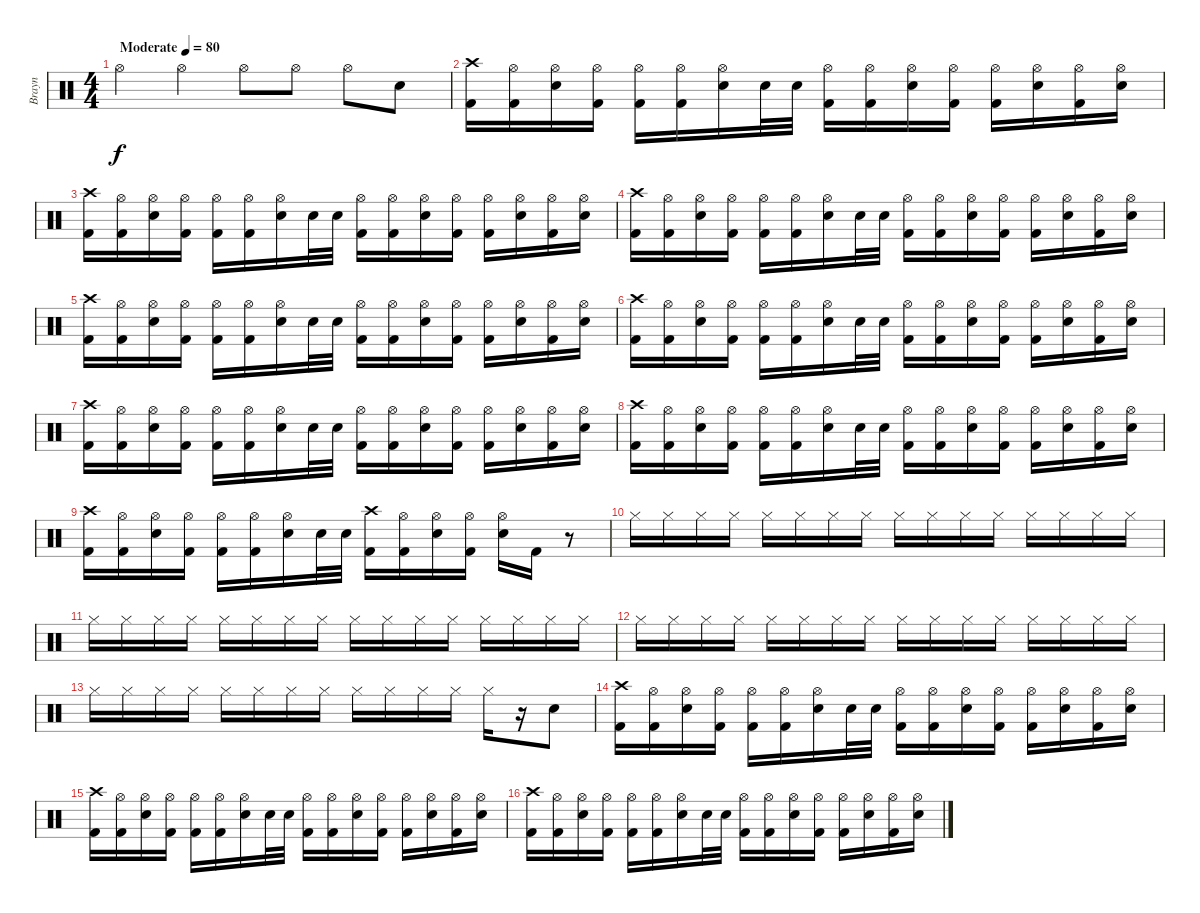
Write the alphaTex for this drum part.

\track ("Brayn" "Brayn") {instrument percussion}
\staff {score}
\articulation defaults
\ts (4 4)
\tempo (80 "Moderate")
\clef neutral
\ks c "Hi-Hat (open)".4{dy f} "Hi-Hat (open)".4 "Hi-Hat (open)".8 "Hi-Hat (open)".8 "Hi-Hat (open)".8 "Snare (hit) 2".8
|
("Crash high (hit)" "Kick (hit) 2").16 ("Hi-Hat (open)" "Kick (hit) 2").16 ("Hi-Hat (open)" "Snare (hit) 2").16 ("Hi-Hat (open)" "Kick (hit) 2").16 ("Hi-Hat (open)" "Kick (hit) 2").16 ("Hi-Hat (open)" "Kick (hit) 2").16 ("Hi-Hat (open)" "Snare (hit) 2").16 "Snare (hit) 2".32 "Snare (hit) 2".32 ("Hi-Hat (open)" "Kick (hit) 2").16 ("Hi-Hat (open)" "Kick (hit) 2").16 ("Hi-Hat (open)" "Snare (hit) 2").16 ("Hi-Hat (open)" "Kick (hit) 2").16 ("Hi-Hat (open)" "Kick (hit) 2").16 ("Hi-Hat (open)" "Snare (hit) 2").16 ("Hi-Hat (open)" "Kick (hit) 2").16 ("Hi-Hat (open)" "Snare (hit) 2").16 |
("Crash high (hit)" "Kick (hit) 2").16 ("Hi-Hat (open)" "Kick (hit) 2").16 ("Hi-Hat (open)" "Snare (hit) 2").16 ("Hi-Hat (open)" "Kick (hit) 2").16 ("Hi-Hat (open)" "Kick (hit) 2").16 ("Hi-Hat (open)" "Kick (hit) 2").16 ("Hi-Hat (open)" "Snare (hit) 2").16 "Snare (hit) 2".32 "Snare (hit) 2".32 ("Hi-Hat (open)" "Kick (hit) 2").16 ("Hi-Hat (open)" "Kick (hit) 2").16 ("Hi-Hat (open)" "Snare (hit) 2").16 ("Hi-Hat (open)" "Kick (hit) 2").16 ("Hi-Hat (open)" "Kick (hit) 2").16 ("Hi-Hat (open)" "Snare (hit) 2").16 ("Hi-Hat (open)" "Kick (hit) 2").16 ("Hi-Hat (open)" "Snare (hit) 2").16 |
("Crash high (hit)" "Kick (hit) 2").16 ("Hi-Hat (open)" "Kick (hit) 2").16 ("Hi-Hat (open)" "Snare (hit) 2").16 ("Hi-Hat (open)" "Kick (hit) 2").16 ("Hi-Hat (open)" "Kick (hit) 2").16 ("Hi-Hat (open)" "Kick (hit) 2").16 ("Hi-Hat (open)" "Snare (hit) 2").16 "Snare (hit) 2".32 "Snare (hit) 2".32 ("Hi-Hat (open)" "Kick (hit) 2").16 ("Hi-Hat (open)" "Kick (hit) 2").16 ("Hi-Hat (open)" "Snare (hit) 2").16 ("Hi-Hat (open)" "Kick (hit) 2").16 ("Hi-Hat (open)" "Kick (hit) 2").16 ("Hi-Hat (open)" "Snare (hit) 2").16 ("Hi-Hat (open)" "Kick (hit) 2").16 ("Hi-Hat (open)" "Snare (hit) 2").16 |
("Crash high (hit)" "Kick (hit) 2").16 ("Hi-Hat (open)" "Kick (hit) 2").16 ("Hi-Hat (open)" "Snare (hit) 2").16 ("Hi-Hat (open)" "Kick (hit) 2").16 ("Hi-Hat (open)" "Kick (hit) 2").16 ("Hi-Hat (open)" "Kick (hit) 2").16 ("Hi-Hat (open)" "Snare (hit) 2").16 "Snare (hit) 2".32 "Snare (hit) 2".32 ("Hi-Hat (open)" "Kick (hit) 2").16 ("Hi-Hat (open)" "Kick (hit) 2").16 ("Hi-Hat (open)" "Snare (hit) 2").16 ("Hi-Hat (open)" "Kick (hit) 2").16 ("Hi-Hat (open)" "Kick (hit) 2").16 ("Hi-Hat (open)" "Snare (hit) 2").16 ("Hi-Hat (open)" "Kick (hit) 2").16 ("Hi-Hat (open)" "Snare (hit) 2").16 |
("Crash high (hit)" "Kick (hit) 2").16 ("Hi-Hat (open)" "Kick (hit) 2").16 ("Hi-Hat (open)" "Snare (hit) 2").16 ("Hi-Hat (open)" "Kick (hit) 2").16 ("Hi-Hat (open)" "Kick (hit) 2").16 ("Hi-Hat (open)" "Kick (hit) 2").16 ("Hi-Hat (open)" "Snare (hit) 2").16 "Snare (hit) 2".32 "Snare (hit) 2".32 ("Hi-Hat (open)" "Kick (hit) 2").16 ("Hi-Hat (open)" "Kick (hit) 2").16 ("Hi-Hat (open)" "Snare (hit) 2").16 ("Hi-Hat (open)" "Kick (hit) 2").16 ("Hi-Hat (open)" "Kick (hit) 2").16 ("Hi-Hat (open)" "Snare (hit) 2").16 ("Hi-Hat (open)" "Kick (hit) 2").16 ("Hi-Hat (open)" "Snare (hit) 2").16 |
("Crash high (hit)" "Kick (hit) 2").16 ("Hi-Hat (open)" "Kick (hit) 2").16 ("Hi-Hat (open)" "Snare (hit) 2").16 ("Hi-Hat (open)" "Kick (hit) 2").16 ("Hi-Hat (open)" "Kick (hit) 2").16 ("Hi-Hat (open)" "Kick (hit) 2").16 ("Hi-Hat (open)" "Snare (hit) 2").16 "Snare (hit) 2".32 "Snare (hit) 2".32 ("Hi-Hat (open)" "Kick (hit) 2").16 ("Hi-Hat (open)" "Kick (hit) 2").16 ("Hi-Hat (open)" "Snare (hit) 2").16 ("Hi-Hat (open)" "Kick (hit) 2").16 ("Hi-Hat (open)" "Kick (hit) 2").16 ("Hi-Hat (open)" "Snare (hit) 2").16 ("Hi-Hat (open)" "Kick (hit) 2").16 ("Hi-Hat (open)" "Snare (hit) 2").16 |
("Crash high (hit)" "Kick (hit) 2").16 ("Hi-Hat (open)" "Kick (hit) 2").16 ("Hi-Hat (open)" "Snare (hit) 2").16 ("Hi-Hat (open)" "Kick (hit) 2").16 ("Hi-Hat (open)" "Kick (hit) 2").16 ("Hi-Hat (open)" "Kick (hit) 2").16 ("Hi-Hat (open)" "Snare (hit) 2").16 "Snare (hit) 2".32 "Snare (hit) 2".32 ("Hi-Hat (open)" "Kick (hit) 2").16 ("Hi-Hat (open)" "Kick (hit) 2").16 ("Hi-Hat (open)" "Snare (hit) 2").16 ("Hi-Hat (open)" "Kick (hit) 2").16 ("Hi-Hat (open)" "Kick (hit) 2").16 ("Hi-Hat (open)" "Snare (hit) 2").16 ("Hi-Hat (open)" "Kick (hit) 2").16 ("Hi-Hat (open)" "Snare (hit) 2").16 |
("Crash high (hit)" "Kick (hit) 2").16 ("Hi-Hat (open)" "Kick (hit) 2").16 ("Hi-Hat (open)" "Snare (hit) 2").16 ("Hi-Hat (open)" "Kick (hit) 2").16 ("Hi-Hat (open)" "Kick (hit) 2").16 ("Hi-Hat (open)" "Kick (hit) 2").16 ("Hi-Hat (open)" "Snare (hit) 2").16 "Snare (hit) 2".32 "Snare (hit) 2".32 ("Crash high (hit)" "Kick (hit) 2").16 ("Hi-Hat (open)" "Kick (hit) 2").16 ("Hi-Hat (open)" "Snare (hit) 2").16 ("Hi-Hat (open)" "Kick (hit) 2").16 ("Hi-Hat (open)" "Snare (hit) 2").16 "Kick (hit) 2".16 r.8 |
"Hi-Hat (closed)".16 "Hi-Hat (closed)".16 "Hi-Hat (closed)".16 "Hi-Hat (closed)".16 "Hi-Hat (closed)".16 "Hi-Hat (closed)".16 "Hi-Hat (closed)".16 "Hi-Hat (closed)".16 "Hi-Hat (closed)".16 "Hi-Hat (closed)".16 "Hi-Hat (closed)".16 "Hi-Hat (closed)".16 "Hi-Hat (closed)".16 "Hi-Hat (closed)".16 "Hi-Hat (closed)".16 "Hi-Hat (closed)".16 |
"Hi-Hat (closed)".16 "Hi-Hat (closed)".16 "Hi-Hat (closed)".16 "Hi-Hat (closed)".16 "Hi-Hat (closed)".16 "Hi-Hat (closed)".16 "Hi-Hat (closed)".16 "Hi-Hat (closed)".16 "Hi-Hat (closed)".16 "Hi-Hat (closed)".16 "Hi-Hat (closed)".16 "Hi-Hat (closed)".16 "Hi-Hat (closed)".16 "Hi-Hat (closed)".16 "Hi-Hat (closed)".16 "Hi-Hat (closed)".16 |
"Hi-Hat (closed)".16 "Hi-Hat (closed)".16 "Hi-Hat (closed)".16 "Hi-Hat (closed)".16 "Hi-Hat (closed)".16 "Hi-Hat (closed)".16 "Hi-Hat (closed)".16 "Hi-Hat (closed)".16 "Hi-Hat (closed)".16 "Hi-Hat (closed)".16 "Hi-Hat (closed)".16 "Hi-Hat (closed)".16 "Hi-Hat (closed)".16 "Hi-Hat (closed)".16 "Hi-Hat (closed)".16 "Hi-Hat (closed)".16 |
"Hi-Hat (closed)".16 "Hi-Hat (closed)".16 "Hi-Hat (closed)".16 "Hi-Hat (closed)".16 "Hi-Hat (closed)".16 "Hi-Hat (closed)".16 "Hi-Hat (closed)".16 "Hi-Hat (closed)".16 "Hi-Hat (closed)".16 "Hi-Hat (closed)".16 "Hi-Hat (closed)".16 "Hi-Hat (closed)".16 "Hi-Hat (closed)".16 r.16 "Snare (hit) 2".8 |
("Crash high (hit)" "Kick (hit) 2").16 ("Hi-Hat (open)" "Kick (hit) 2").16 ("Hi-Hat (open)" "Snare (hit) 2").16 ("Hi-Hat (open)" "Kick (hit) 2").16 ("Hi-Hat (open)" "Kick (hit) 2").16 ("Hi-Hat (open)" "Kick (hit) 2").16 ("Hi-Hat (open)" "Snare (hit) 2").16 "Snare (hit) 2".32 "Snare (hit) 2".32 ("Hi-Hat (open)" "Kick (hit) 2").16 ("Hi-Hat (open)" "Kick (hit) 2").16 ("Hi-Hat (open)" "Snare (hit) 2").16 ("Hi-Hat (open)" "Kick (hit) 2").16 ("Hi-Hat (open)" "Kick (hit) 2").16 ("Hi-Hat (open)" "Snare (hit) 2").16 ("Hi-Hat (open)" "Kick (hit) 2").16 ("Hi-Hat (open)" "Snare (hit) 2").16 |
("Crash high (hit)" "Kick (hit) 2").16 ("Hi-Hat (open)" "Kick (hit) 2").16 ("Hi-Hat (open)" "Snare (hit) 2").16 ("Hi-Hat (open)" "Kick (hit) 2").16 ("Hi-Hat (open)" "Kick (hit) 2").16 ("Hi-Hat (open)" "Kick (hit) 2").16 ("Hi-Hat (open)" "Snare (hit) 2").16 "Snare (hit) 2".32 "Snare (hit) 2".32 ("Hi-Hat (open)" "Kick (hit) 2").16 ("Hi-Hat (open)" "Kick (hit) 2").16 ("Hi-Hat (open)" "Snare (hit) 2").16 ("Hi-Hat (open)" "Kick (hit) 2").16 ("Hi-Hat (open)" "Kick (hit) 2").16 ("Hi-Hat (open)" "Snare (hit) 2").16 ("Hi-Hat (open)" "Kick (hit) 2").16 ("Hi-Hat (open)" "Snare (hit) 2").16 |
("Crash high (hit)" "Kick (hit) 2").16 ("Hi-Hat (open)" "Kick (hit) 2").16 ("Hi-Hat (open)" "Snare (hit) 2").16 ("Hi-Hat (open)" "Kick (hit) 2").16 ("Hi-Hat (open)" "Kick (hit) 2").16 ("Hi-Hat (open)" "Kick (hit) 2").16 ("Hi-Hat (open)" "Snare (hit) 2").16 "Snare (hit) 2".32 "Snare (hit) 2".32 ("Hi-Hat (open)" "Kick (hit) 2").16 ("Hi-Hat (open)" "Kick (hit) 2").16 ("Hi-Hat (open)" "Snare (hit) 2").16 ("Hi-Hat (open)" "Kick (hit) 2").16 ("Hi-Hat (open)" "Kick (hit) 2").16 ("Hi-Hat (open)" "Snare (hit) 2").16 ("Hi-Hat (open)" "Kick (hit) 2").16 ("Hi-Hat (open)" "Snare (hit) 2").16
